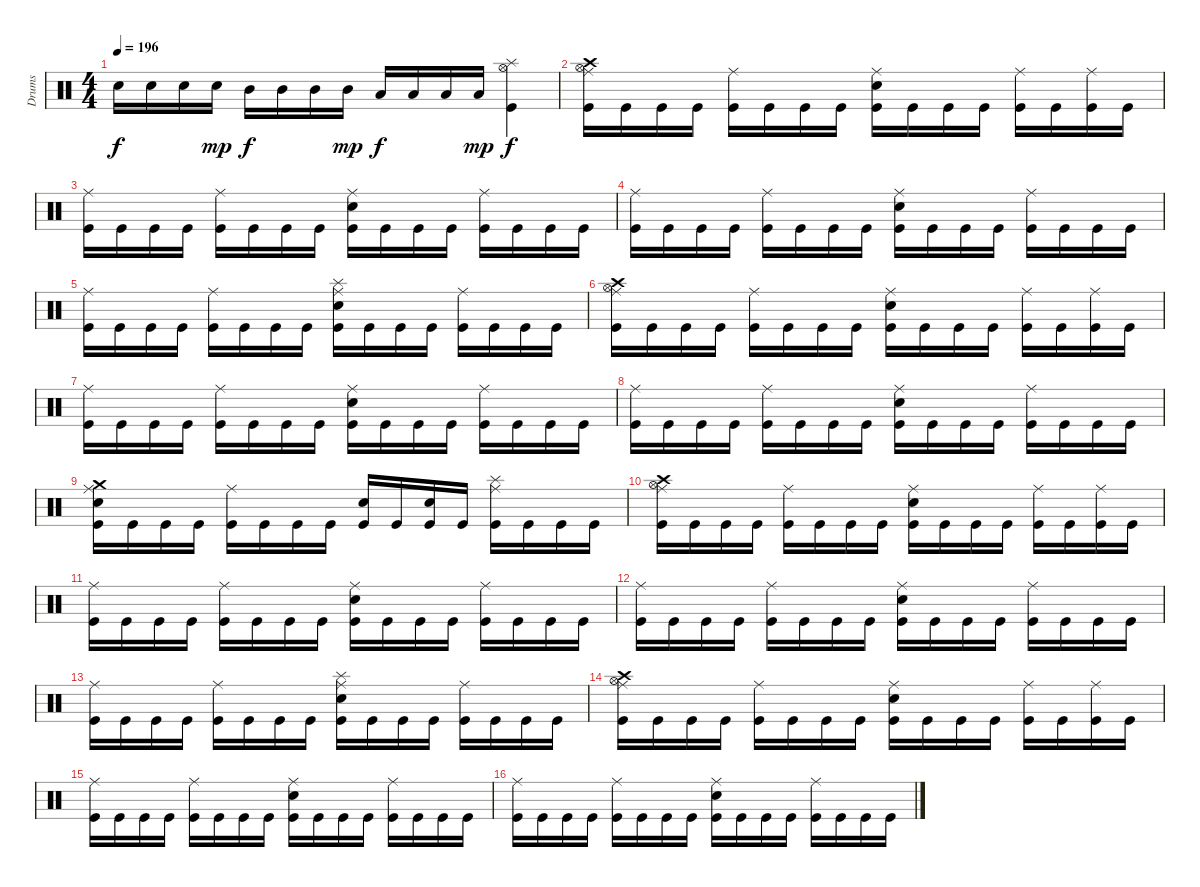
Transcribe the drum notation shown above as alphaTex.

\track ("Drums" "Drums") {instrument percussion}
\staff {score}
\articulation defaults
\ts (4 4)
\tempo 196
\clef neutral
\ks c "Electric Snare (hit)".16{dy f} "Electric Snare (hit)".16 "Electric Snare (hit)".16 "Electric Snare (hit)".16{dy mp} "Mid Tom (hit)".16{dy f} "Mid Tom (hit)".16 "Mid Tom (hit)".16 "Mid Tom (hit)".16{dy mp} "Low Tom (hit)".16{dy f} "Low Tom (hit)".16 "Low Tom (hit)".16 "Low Tom (hit)".16{dy mp}
("Splash (hit)" "Hi-Hat (open)" "Kick (hit)").4{dy f} |
("Crash high (hit)" "Hi-Hat (open)" "Ride (middle)" "Kick (hit)").16 "Kick (hit)".16 "Kick (hit)".16 "Kick (hit)".16 ("Ride (middle)" "Kick (hit)").16 "Kick (hit)".16 "Kick (hit)".16 "Kick (hit)".16 ("Ride (middle)" "Electric Snare (hit)" "Kick (hit)").16 "Kick (hit)".16 "Kick (hit)".16 "Kick (hit)".16 ("Ride (middle)" "Kick (hit)").16 "Kick (hit)".16 ("Ride (middle)" "Kick (hit)").16 "Kick (hit)".16 |
("Ride (middle)" "Kick (hit)").16 "Kick (hit)".16 "Kick (hit)".16 "Kick (hit)".16 ("Ride (middle)" "Kick (hit)").16 "Kick (hit)".16 "Kick (hit)".16 "Kick (hit)".16 ("Ride (middle)" "Electric Snare (hit)" "Kick (hit)").16 "Kick (hit)".16 "Kick (hit)".16 "Kick (hit)".16 ("Ride (middle)" "Kick (hit)").16 "Kick (hit)".16 "Kick (hit)".16 "Kick (hit)".16 |
("Ride (middle)" "Kick (hit)").16 "Kick (hit)".16 "Kick (hit)".16 "Kick (hit)".16 ("Ride (middle)" "Kick (hit)").16 "Kick (hit)".16 "Kick (hit)".16 "Kick (hit)".16 ("Ride (middle)" "Electric Snare (hit)" "Kick (hit)").16 "Kick (hit)".16 "Kick (hit)".16 "Kick (hit)".16 ("Ride (middle)" "Kick (hit)").16 "Kick (hit)".16 "Kick (hit)".16 "Kick (hit)".16 |
("Ride (middle)" "Kick (hit)").16 "Kick (hit)".16 "Kick (hit)".16 "Kick (hit)".16 ("Ride (middle)" "Kick (hit)").16 "Kick (hit)".16 "Kick (hit)".16 "Kick (hit)".16 ("Ride (middle)" "Splash (hit)" "Electric Snare (hit)" "Kick (hit)").16 "Kick (hit)".16 "Kick (hit)".16 "Kick (hit)".16 ("Ride (middle)" "Kick (hit)").16 "Kick (hit)".16 "Kick (hit)".16 "Kick (hit)".16 |
("Crash high (hit)" "Hi-Hat (open)" "Ride (middle)" "Kick (hit)").16 "Kick (hit)".16 "Kick (hit)".16 "Kick (hit)".16 ("Ride (middle)" "Kick (hit)").16 "Kick (hit)".16 "Kick (hit)".16 "Kick (hit)".16 ("Ride (middle)" "Electric Snare (hit)" "Kick (hit)").16 "Kick (hit)".16 "Kick (hit)".16 "Kick (hit)".16 ("Ride (middle)" "Kick (hit)").16 "Kick (hit)".16 ("Ride (middle)" "Kick (hit)").16 "Kick (hit)".16 |
("Ride (middle)" "Kick (hit)").16 "Kick (hit)".16 "Kick (hit)".16 "Kick (hit)".16 ("Ride (middle)" "Kick (hit)").16 "Kick (hit)".16 "Kick (hit)".16 "Kick (hit)".16 ("Ride (middle)" "Electric Snare (hit)" "Kick (hit)").16 "Kick (hit)".16 "Kick (hit)".16 "Kick (hit)".16 ("Ride (middle)" "Kick (hit)").16 "Kick (hit)".16 "Kick (hit)".16 "Kick (hit)".16 |
("Ride (middle)" "Kick (hit)").16 "Kick (hit)".16 "Kick (hit)".16 "Kick (hit)".16 ("Ride (middle)" "Kick (hit)").16 "Kick (hit)".16 "Kick (hit)".16 "Kick (hit)".16 ("Ride (middle)" "Electric Snare (hit)" "Kick (hit)").16 "Kick (hit)".16 "Kick (hit)".16 "Kick (hit)".16 ("Ride (middle)" "Kick (hit)").16 "Kick (hit)".16 "Kick (hit)".16 "Kick (hit)".16 |
("Crash medium (hit)" "Ride (middle)" "Electric Snare (hit)" "Kick (hit)").16 "Kick (hit)".16 "Kick (hit)".16 "Kick (hit)".16 ("Ride (middle)" "Kick (hit)").16 "Kick (hit)".16 "Kick (hit)".16 "Kick (hit)".16 ("Electric Snare (hit)" "Kick (hit)").16 "Kick (hit)".16 ("Electric Snare (hit)" "Kick (hit)").16 "Kick (hit)".16 ("Ride (middle)" "Splash (hit)" "Kick (hit)").16 "Kick (hit)".16 "Kick (hit)".16 "Kick (hit)".16 |
("Crash high (hit)" "Hi-Hat (open)" "Ride (middle)" "Kick (hit)").16 "Kick (hit)".16 "Kick (hit)".16 "Kick (hit)".16 ("Ride (middle)" "Kick (hit)").16 "Kick (hit)".16 "Kick (hit)".16 "Kick (hit)".16 ("Ride (middle)" "Electric Snare (hit)" "Kick (hit)").16 "Kick (hit)".16 "Kick (hit)".16 "Kick (hit)".16 ("Ride (middle)" "Kick (hit)").16 "Kick (hit)".16 ("Ride (middle)" "Kick (hit)").16 "Kick (hit)".16 |
("Ride (middle)" "Kick (hit)").16 "Kick (hit)".16 "Kick (hit)".16 "Kick (hit)".16 ("Ride (middle)" "Kick (hit)").16 "Kick (hit)".16 "Kick (hit)".16 "Kick (hit)".16 ("Ride (middle)" "Electric Snare (hit)" "Kick (hit)").16 "Kick (hit)".16 "Kick (hit)".16 "Kick (hit)".16 ("Ride (middle)" "Kick (hit)").16 "Kick (hit)".16 "Kick (hit)".16 "Kick (hit)".16 |
("Ride (middle)" "Kick (hit)").16 "Kick (hit)".16 "Kick (hit)".16 "Kick (hit)".16 ("Ride (middle)" "Kick (hit)").16 "Kick (hit)".16 "Kick (hit)".16 "Kick (hit)".16 ("Ride (middle)" "Electric Snare (hit)" "Kick (hit)").16 "Kick (hit)".16 "Kick (hit)".16 "Kick (hit)".16 ("Ride (middle)" "Kick (hit)").16 "Kick (hit)".16 "Kick (hit)".16 "Kick (hit)".16 |
("Ride (middle)" "Kick (hit)").16 "Kick (hit)".16 "Kick (hit)".16 "Kick (hit)".16 ("Ride (middle)" "Kick (hit)").16 "Kick (hit)".16 "Kick (hit)".16 "Kick (hit)".16 ("Ride (middle)" "Splash (hit)" "Electric Snare (hit)" "Kick (hit)").16 "Kick (hit)".16 "Kick (hit)".16 "Kick (hit)".16 ("Ride (middle)" "Kick (hit)").16 "Kick (hit)".16 "Kick (hit)".16 "Kick (hit)".16 |
("Crash high (hit)" "Hi-Hat (open)" "Ride (middle)" "Kick (hit)").16 "Kick (hit)".16 "Kick (hit)".16 "Kick (hit)".16 ("Ride (middle)" "Kick (hit)").16 "Kick (hit)".16 "Kick (hit)".16 "Kick (hit)".16 ("Ride (middle)" "Electric Snare (hit)" "Kick (hit)").16 "Kick (hit)".16 "Kick (hit)".16 "Kick (hit)".16 ("Ride (middle)" "Kick (hit)").16 "Kick (hit)".16 ("Ride (middle)" "Kick (hit)").16 "Kick (hit)".16 |
("Ride (middle)" "Kick (hit)").16 "Kick (hit)".16 "Kick (hit)".16 "Kick (hit)".16 ("Ride (middle)" "Kick (hit)").16 "Kick (hit)".16 "Kick (hit)".16 "Kick (hit)".16 ("Ride (middle)" "Electric Snare (hit)" "Kick (hit)").16 "Kick (hit)".16 "Kick (hit)".16 "Kick (hit)".16 ("Ride (middle)" "Kick (hit)").16 "Kick (hit)".16 "Kick (hit)".16 "Kick (hit)".16 |
("Ride (middle)" "Kick (hit)").16 "Kick (hit)".16 "Kick (hit)".16 "Kick (hit)".16 ("Ride (middle)" "Kick (hit)").16 "Kick (hit)".16 "Kick (hit)".16 "Kick (hit)".16 ("Ride (middle)" "Electric Snare (hit)" "Kick (hit)").16 "Kick (hit)".16 "Kick (hit)".16 "Kick (hit)".16 ("Ride (middle)" "Kick (hit)").16 "Kick (hit)".16 "Kick (hit)".16 "Kick (hit)".16
